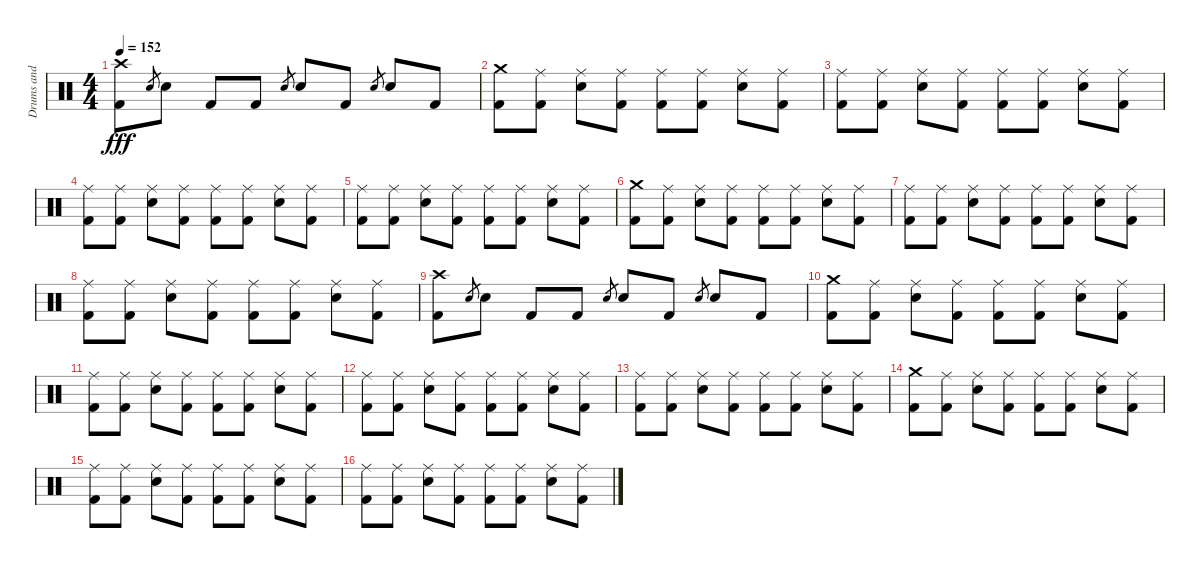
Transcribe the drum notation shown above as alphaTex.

\track ("Drums and Percussion" "Drums and ") {instrument percussion}
\staff {score}
\articulation defaults
\ts (4 4)
\tempo 152
\clef neutral
\ks c
("Crash high (hit)" "Kick (hit) 2").8{dy fff} "Snare (hit) 2".8{gr} "Snare (hit) 2".8 "Kick (hit) 2".8 "Kick (hit) 2".8 "Snare (hit) 2".8{gr} "Snare (hit) 2".8 "Kick (hit) 2".8 "Snare (hit) 2".8{gr} "Snare (hit) 2".8 "Kick (hit) 2".8 |
("Crash medium (hit)" "Kick (hit) 2").8 ("Ride (middle)" "Kick (hit) 2").8 ("Ride (middle)" "Snare (hit) 2").8 ("Ride (middle)" "Kick (hit) 2").8 ("Ride (middle)" "Kick (hit) 2").8 ("Ride (middle)" "Kick (hit) 2").8 ("Ride (middle)" "Snare (hit) 2").8 ("Ride (middle)" "Kick (hit) 2").8 |
("Ride (middle)" "Kick (hit) 2").8 ("Ride (middle)" "Kick (hit) 2").8 ("Ride (middle)" "Snare (hit) 2").8 ("Ride (middle)" "Kick (hit) 2").8 ("Ride (middle)" "Kick (hit) 2").8 ("Ride (middle)" "Kick (hit) 2").8 ("Ride (middle)" "Snare (hit) 2").8 ("Ride (middle)" "Kick (hit) 2").8 |
("Ride (middle)" "Kick (hit) 2").8 ("Ride (middle)" "Kick (hit) 2").8 ("Ride (middle)" "Snare (hit) 2").8 ("Ride (middle)" "Kick (hit) 2").8 ("Ride (middle)" "Kick (hit) 2").8 ("Ride (middle)" "Kick (hit) 2").8 ("Ride (middle)" "Snare (hit) 2").8 ("Ride (middle)" "Kick (hit) 2").8 |
("Ride (middle)" "Kick (hit) 2").8 ("Ride (middle)" "Kick (hit) 2").8 ("Ride (middle)" "Snare (hit) 2").8 ("Ride (middle)" "Kick (hit) 2").8 ("Ride (middle)" "Kick (hit) 2").8 ("Ride (middle)" "Kick (hit) 2").8 ("Ride (middle)" "Snare (hit) 2").8 ("Ride (middle)" "Kick (hit) 2").8 |
("Crash medium (hit)" "Kick (hit) 2").8 ("Ride (middle)" "Kick (hit) 2").8 ("Ride (middle)" "Snare (hit) 2").8 ("Ride (middle)" "Kick (hit) 2").8 ("Ride (middle)" "Kick (hit) 2").8 ("Ride (middle)" "Kick (hit) 2").8 ("Ride (middle)" "Snare (hit) 2").8 ("Ride (middle)" "Kick (hit) 2").8 |
("Ride (middle)" "Kick (hit) 2").8 ("Ride (middle)" "Kick (hit) 2").8 ("Ride (middle)" "Snare (hit) 2").8 ("Ride (middle)" "Kick (hit) 2").8 ("Ride (middle)" "Kick (hit) 2").8 ("Ride (middle)" "Kick (hit) 2").8 ("Ride (middle)" "Snare (hit) 2").8 ("Ride (middle)" "Kick (hit) 2").8 |
("Ride (middle)" "Kick (hit) 2").8 ("Ride (middle)" "Kick (hit) 2").8 ("Ride (middle)" "Snare (hit) 2").8 ("Ride (middle)" "Kick (hit) 2").8 ("Ride (middle)" "Kick (hit) 2").8 ("Ride (middle)" "Kick (hit) 2").8 ("Ride (middle)" "Snare (hit) 2").8 ("Ride (middle)" "Kick (hit) 2").8 |
("Crash high (hit)" "Kick (hit) 2").8 "Snare (hit) 2".8{gr} "Snare (hit) 2".8 "Kick (hit) 2".8 "Kick (hit) 2".8 "Snare (hit) 2".8{gr} "Snare (hit) 2".8 "Kick (hit) 2".8 "Snare (hit) 2".8{gr} "Snare (hit) 2".8 "Kick (hit) 2".8 |
("Crash medium (hit)" "Kick (hit) 2").8 ("Ride (middle)" "Kick (hit) 2").8 ("Ride (middle)" "Snare (hit) 2").8 ("Ride (middle)" "Kick (hit) 2").8 ("Ride (middle)" "Kick (hit) 2").8 ("Ride (middle)" "Kick (hit) 2").8 ("Ride (middle)" "Snare (hit) 2").8 ("Ride (middle)" "Kick (hit) 2").8 |
("Ride (middle)" "Kick (hit) 2").8 ("Ride (middle)" "Kick (hit) 2").8 ("Ride (middle)" "Snare (hit) 2").8 ("Ride (middle)" "Kick (hit) 2").8 ("Ride (middle)" "Kick (hit) 2").8 ("Ride (middle)" "Kick (hit) 2").8 ("Ride (middle)" "Snare (hit) 2").8 ("Ride (middle)" "Kick (hit) 2").8 |
("Ride (middle)" "Kick (hit) 2").8 ("Ride (middle)" "Kick (hit) 2").8 ("Ride (middle)" "Snare (hit) 2").8 ("Ride (middle)" "Kick (hit) 2").8 ("Ride (middle)" "Kick (hit) 2").8 ("Ride (middle)" "Kick (hit) 2").8 ("Ride (middle)" "Snare (hit) 2").8 ("Ride (middle)" "Kick (hit) 2").8 |
("Ride (middle)" "Kick (hit) 2").8 ("Ride (middle)" "Kick (hit) 2").8 ("Ride (middle)" "Snare (hit) 2").8 ("Ride (middle)" "Kick (hit) 2").8 ("Ride (middle)" "Kick (hit) 2").8 ("Ride (middle)" "Kick (hit) 2").8 ("Ride (middle)" "Snare (hit) 2").8 ("Ride (middle)" "Kick (hit) 2").8 |
("Crash medium (hit)" "Kick (hit) 2").8 ("Ride (middle)" "Kick (hit) 2").8 ("Ride (middle)" "Snare (hit) 2").8 ("Ride (middle)" "Kick (hit) 2").8 ("Ride (middle)" "Kick (hit) 2").8 ("Ride (middle)" "Kick (hit) 2").8 ("Ride (middle)" "Snare (hit) 2").8 ("Ride (middle)" "Kick (hit) 2").8 |
("Ride (middle)" "Kick (hit) 2").8 ("Ride (middle)" "Kick (hit) 2").8 ("Ride (middle)" "Snare (hit) 2").8 ("Ride (middle)" "Kick (hit) 2").8 ("Ride (middle)" "Kick (hit) 2").8 ("Ride (middle)" "Kick (hit) 2").8 ("Ride (middle)" "Snare (hit) 2").8 ("Ride (middle)" "Kick (hit) 2").8 |
("Ride (middle)" "Kick (hit) 2").8 ("Ride (middle)" "Kick (hit) 2").8 ("Ride (middle)" "Snare (hit) 2").8 ("Ride (middle)" "Kick (hit) 2").8 ("Ride (middle)" "Kick (hit) 2").8 ("Ride (middle)" "Kick (hit) 2").8 ("Ride (middle)" "Snare (hit) 2").8 ("Ride (middle)" "Kick (hit) 2").8
